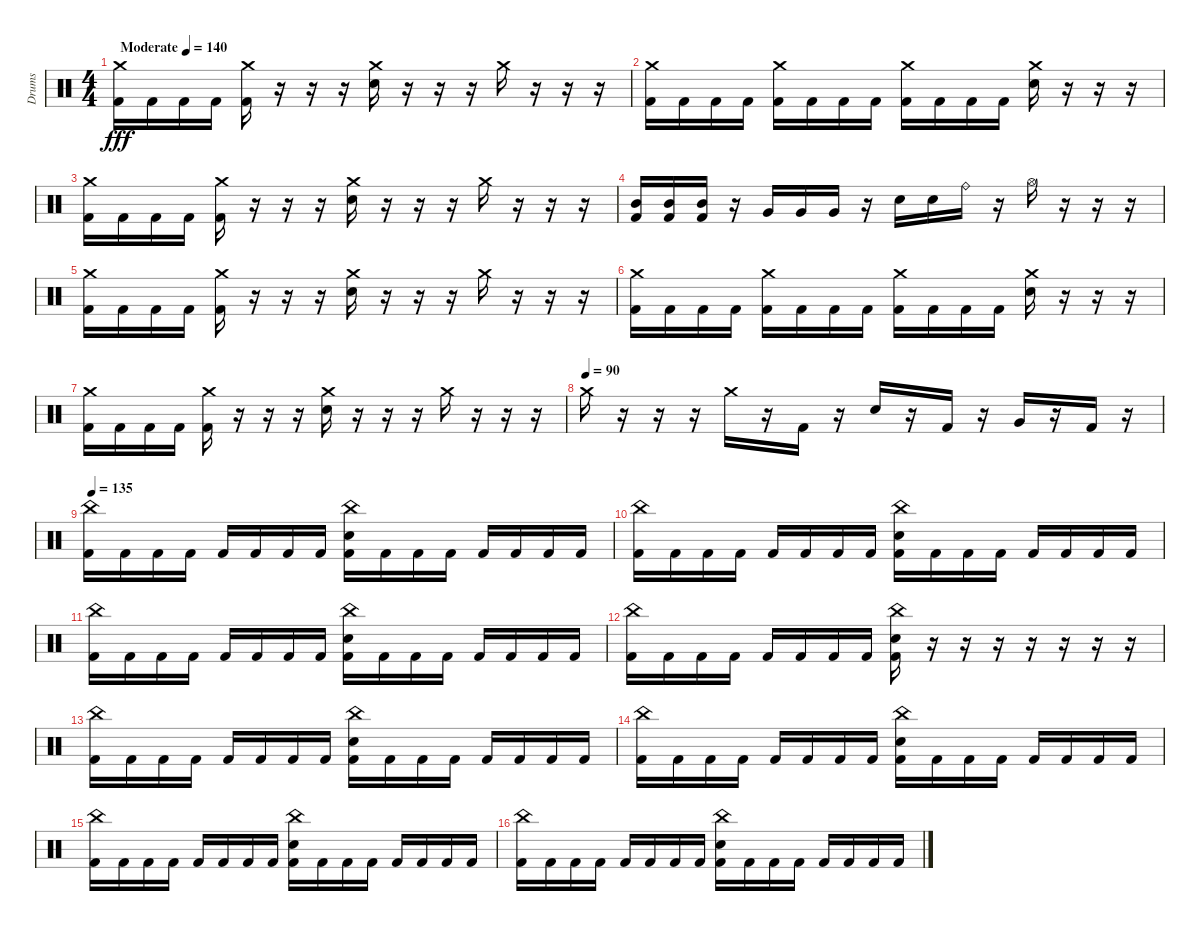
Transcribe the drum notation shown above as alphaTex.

\track ("Drums" "Drums") {instrument percussion}
\staff {score}
\articulation defaults
\ts (4 4)
\tempo (140 "Moderate")
\clef neutral
\ks c
("Crash medium (hit)" "Kick (hit) 2").16{dy fff} "Kick (hit) 2".16 "Kick (hit) 2".16 "Kick (hit) 2".16 ("Crash medium (hit)" "Kick (hit) 2").16 r.16 r.16 r.16 ("Crash medium (hit)" "Electric Snare (hit)").16 r.16 r.16 r.16 "Crash medium (hit)".16 r.16 r.16 r.16 |
("Crash medium (hit)" "Kick (hit) 2").16 "Kick (hit) 2".16 "Kick (hit) 2".16 "Kick (hit) 2".16 ("Crash medium (hit)" "Kick (hit) 2").16 "Kick (hit) 2".16 "Kick (hit) 2".16 "Kick (hit) 2".16 ("Crash medium (hit)" "Kick (hit) 2").16 "Kick (hit) 2".16 "Kick (hit) 2".16 "Kick (hit) 2".16 ("Crash medium (hit)" "Electric Snare (hit)").16 r.16 r.16 r.16 |
("Crash medium (hit)" "Kick (hit) 2").16 "Kick (hit) 2".16 "Kick (hit) 2".16 "Kick (hit) 2".16 ("Crash medium (hit)" "Kick (hit) 2").16 r.16 r.16 r.16 ("Crash medium (hit)" "Electric Snare (hit)").16 r.16 r.16 r.16 "Crash medium (hit)".16 r.16 r.16 r.16 |
("Mid Tom (hit)" "Kick (hit) 2").16 ("Mid Tom (hit)" "Kick (hit) 2").16 ("Mid Tom (hit)" "Kick (hit) 2").16 r.16 "Very Low Tom (hit)".16 "Very Low Tom (hit)".16 "Very Low Tom (hit)".16 r.16 "Electric Snare (hit)".16 "Electric Snare (hit)".16 "Ride (bell)".16 r.16 "Hi-Hat (open)".16 r.16 r.16 r.16 |
("Crash medium (hit)" "Kick (hit) 2").16 "Kick (hit) 2".16 "Kick (hit) 2".16 "Kick (hit) 2".16 ("Crash medium (hit)" "Kick (hit) 2").16 r.16 r.16 r.16 ("Crash medium (hit)" "Electric Snare (hit)").16 r.16 r.16 r.16 "Crash medium (hit)".16 r.16 r.16 r.16 |
("Crash medium (hit)" "Kick (hit) 2").16 "Kick (hit) 2".16 "Kick (hit) 2".16 "Kick (hit) 2".16 ("Crash medium (hit)" "Kick (hit) 2").16 "Kick (hit) 2".16 "Kick (hit) 2".16 "Kick (hit) 2".16 ("Crash medium (hit)" "Kick (hit) 2").16 "Kick (hit) 2".16 "Kick (hit) 2".16 "Kick (hit) 2".16 ("Crash medium (hit)" "Electric Snare (hit)").16 r.16 r.16 r.16 |
("Crash medium (hit)" "Kick (hit) 2").16 "Kick (hit) 2".16 "Kick (hit) 2".16 "Kick (hit) 2".16 ("Crash medium (hit)" "Kick (hit) 2").16 r.16 r.16 r.16 ("Crash medium (hit)" "Electric Snare (hit)").16 r.16 r.16 r.16 "Crash medium (hit)".16 r.16 r.16 r.16 |
\tempo (90)
"Crash medium (hit)".16 r.16 r.16 r.16 "Crash medium (hit)".16 r.16 "Kick (hit) 2".16 r.16 "Electric Snare (hit)".16 r.16 "Kick (hit) 2".16 r.16 "Very Low Tom (hit)".16 r.16 "Kick (hit) 2".16 r.16 |
\tempo 135
("China (hit)" "Kick (hit) 2").16 "Kick (hit) 2".16 "Kick (hit) 2".16 "Kick (hit) 2".16 "Kick (hit) 2".16 "Kick (hit) 2".16 "Kick (hit) 2".16 "Kick (hit) 2".16 ("China (hit)" "Electric Snare (hit)" "Kick (hit) 2").16 "Kick (hit) 2".16 "Kick (hit) 2".16 "Kick (hit) 2".16 "Kick (hit) 2".16 "Kick (hit) 2".16 "Kick (hit) 2".16 "Kick (hit) 2".16 |
("China (hit)" "Kick (hit) 2").16 "Kick (hit) 2".16 "Kick (hit) 2".16 "Kick (hit) 2".16 "Kick (hit) 2".16 "Kick (hit) 2".16 "Kick (hit) 2".16 "Kick (hit) 2".16 ("China (hit)" "Electric Snare (hit)" "Kick (hit) 2").16 "Kick (hit) 2".16 "Kick (hit) 2".16 "Kick (hit) 2".16 "Kick (hit) 2".16 "Kick (hit) 2".16 "Kick (hit) 2".16 "Kick (hit) 2".16 |
("China (hit)" "Kick (hit) 2").16 "Kick (hit) 2".16 "Kick (hit) 2".16 "Kick (hit) 2".16 "Kick (hit) 2".16 "Kick (hit) 2".16 "Kick (hit) 2".16 "Kick (hit) 2".16 ("China (hit)" "Electric Snare (hit)" "Kick (hit) 2").16 "Kick (hit) 2".16 "Kick (hit) 2".16 "Kick (hit) 2".16 "Kick (hit) 2".16 "Kick (hit) 2".16 "Kick (hit) 2".16 "Kick (hit) 2".16 |
("China (hit)" "Kick (hit) 2").16 "Kick (hit) 2".16 "Kick (hit) 2".16 "Kick (hit) 2".16 "Kick (hit) 2".16 "Kick (hit) 2".16 "Kick (hit) 2".16 "Kick (hit) 2".16 ("China (hit)" "Electric Snare (hit)" "Kick (hit) 2").16 r.16 r.16 r.16 r.16 r.16 r.16 r.16 |
("China (hit)" "Kick (hit) 2").16 "Kick (hit) 2".16 "Kick (hit) 2".16 "Kick (hit) 2".16 "Kick (hit) 2".16 "Kick (hit) 2".16 "Kick (hit) 2".16 "Kick (hit) 2".16 ("China (hit)" "Electric Snare (hit)" "Kick (hit) 2").16 "Kick (hit) 2".16 "Kick (hit) 2".16 "Kick (hit) 2".16 "Kick (hit) 2".16 "Kick (hit) 2".16 "Kick (hit) 2".16 "Kick (hit) 2".16 |
("China (hit)" "Kick (hit) 2").16 "Kick (hit) 2".16 "Kick (hit) 2".16 "Kick (hit) 2".16 "Kick (hit) 2".16 "Kick (hit) 2".16 "Kick (hit) 2".16 "Kick (hit) 2".16 ("China (hit)" "Electric Snare (hit)" "Kick (hit) 2").16 "Kick (hit) 2".16 "Kick (hit) 2".16 "Kick (hit) 2".16 "Kick (hit) 2".16 "Kick (hit) 2".16 "Kick (hit) 2".16 "Kick (hit) 2".16 |
("China (hit)" "Kick (hit) 2").16 "Kick (hit) 2".16 "Kick (hit) 2".16 "Kick (hit) 2".16 "Kick (hit) 2".16 "Kick (hit) 2".16 "Kick (hit) 2".16 "Kick (hit) 2".16 ("China (hit)" "Electric Snare (hit)" "Kick (hit) 2").16 "Kick (hit) 2".16 "Kick (hit) 2".16 "Kick (hit) 2".16 "Kick (hit) 2".16 "Kick (hit) 2".16 "Kick (hit) 2".16 "Kick (hit) 2".16 |
("China (hit)" "Kick (hit) 2").16 "Kick (hit) 2".16 "Kick (hit) 2".16 "Kick (hit) 2".16 "Kick (hit) 2".16 "Kick (hit) 2".16 "Kick (hit) 2".16 "Kick (hit) 2".16 ("China (hit)" "Electric Snare (hit)" "Kick (hit) 2").16 "Kick (hit) 2".16 "Kick (hit) 2".16 "Kick (hit) 2".16 "Kick (hit) 2".16 "Kick (hit) 2".16 "Kick (hit) 2".16 "Kick (hit) 2".16
